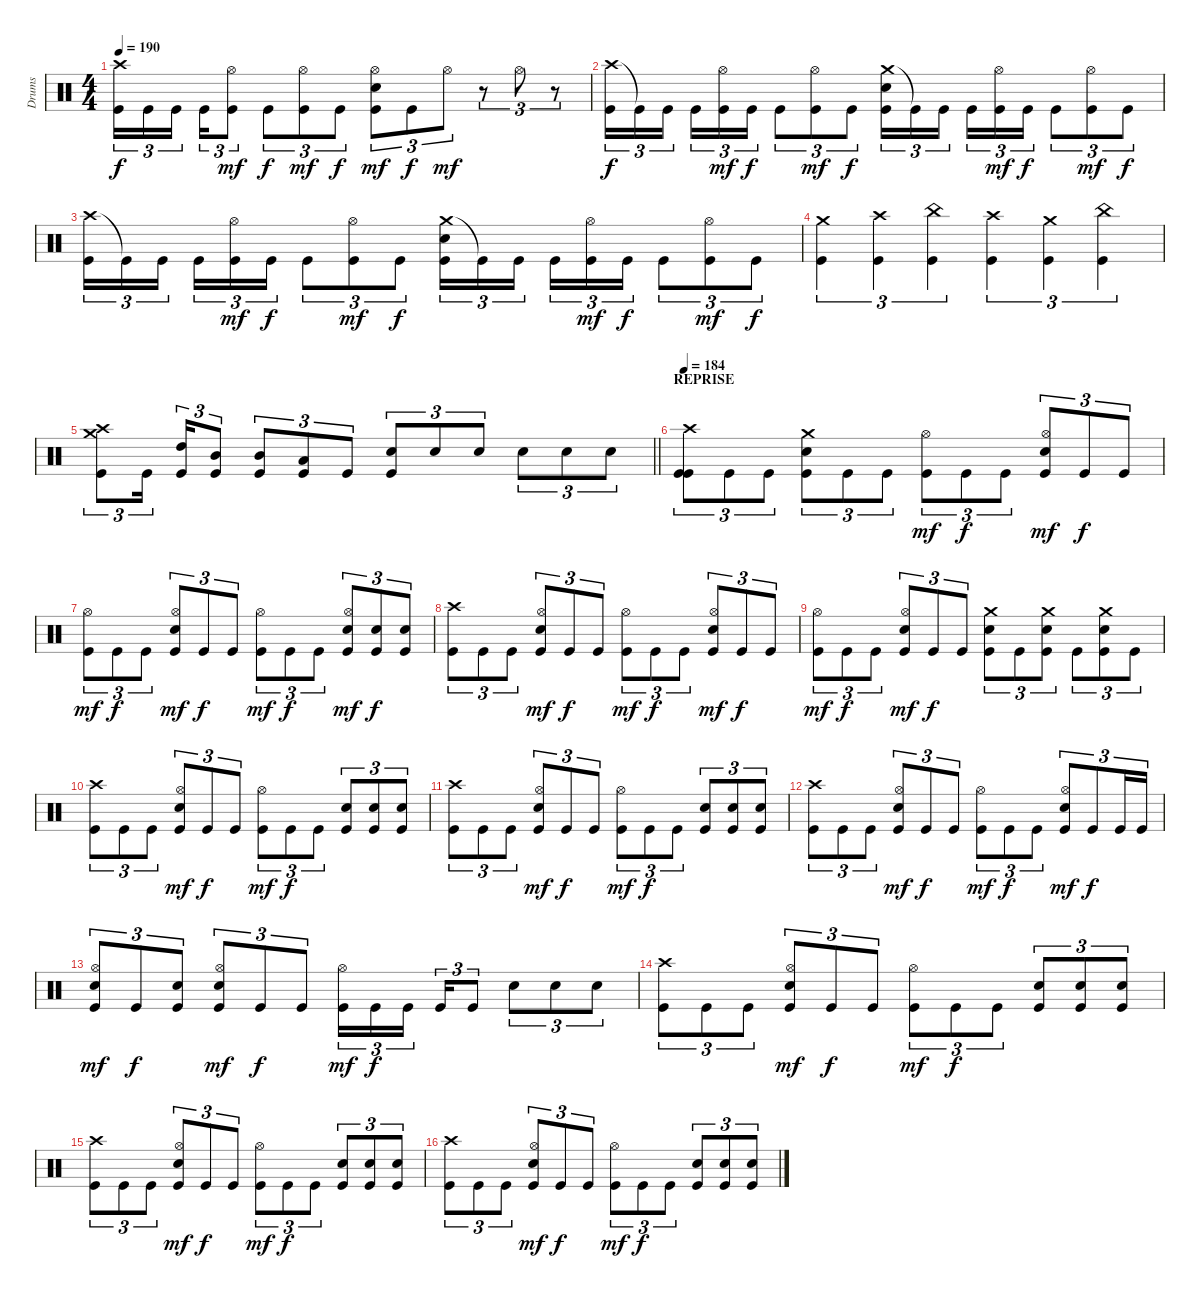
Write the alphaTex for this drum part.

\track ("Drums" "Drums") {instrument percussion}
\staff {score}
\articulation defaults
\ts (4 4)
\tempo 190
\clef neutral
\ks c
("Crash high (hit)" "Kick (hit)").16{tu (3 2) dy f} "Kick (hit)".16{tu (3 2)} "Kick (hit)".16{tu (3 2) beam splitsecondary} "Kick (hit)".16{tu (3 2)} ("Hi-Hat (open)" "Kick (hit)").8{tu (3 2) dy mf} "Kick (hit)".8{tu (3 2) dy f} ("Hi-Hat (open)" "Kick (hit)").8{tu (3 2) dy mf} "Kick (hit)".8{tu (3 2) dy f} ("Hi-Hat (open)" "Electric Snare (hit)" "Kick (hit)").8{tu (3 2) dy mf} "Kick (hit)".8{tu (3 2) dy f} "Hi-Hat (open)".8{tu (3 2) dy mf} r.8{tu (3 2)} "Hi-Hat (open)".8{tu (3 2)} r.8{tu (3 2)} |
("Crash high (hit)" "Kick (hit)").16{tu (3 2) dy f} "Kick (hit)"{t}.16{tu (3 2)} "Kick (hit)".16{tu (3 2) beam splitsecondary} "Kick (hit)".16{tu (3 2)} ("Hi-Hat (open)" "Kick (hit)").16{tu (3 2) dy mf} "Kick (hit)".16{tu (3 2) dy f} "Kick (hit)".8{tu (3 2)} ("Hi-Hat (open)" "Kick (hit)").8{tu (3 2) dy mf} "Kick (hit)".8{tu (3 2) dy f} ("Crash medium (hit)" "Electric Snare (hit)" "Kick (hit)").16{tu (3 2)} "Kick (hit)"{t}.16{tu (3 2)} "Kick (hit)".16{tu (3 2) beam splitsecondary} "Kick (hit)".16{tu (3 2)} ("Hi-Hat (open)" "Kick (hit)").16{tu (3 2) dy mf} "Kick (hit)".16{tu (3 2) dy f} "Kick (hit)".8{tu (3 2)} ("Hi-Hat (open)" "Kick (hit)").8{tu (3 2) dy mf} "Kick (hit)".8{tu (3 2) dy f} |
("Crash high (hit)" "Kick (hit)").16{tu (3 2)} "Kick (hit)"{t}.16{tu (3 2)} "Kick (hit)".16{tu (3 2) beam splitsecondary} "Kick (hit)".16{tu (3 2)} ("Hi-Hat (open)" "Kick (hit)").16{tu (3 2) dy mf} "Kick (hit)".16{tu (3 2) dy f} "Kick (hit)".8{tu (3 2)} ("Hi-Hat (open)" "Kick (hit)").8{tu (3 2) dy mf} "Kick (hit)".8{tu (3 2) dy f} ("Crash medium (hit)" "Electric Snare (hit)" "Kick (hit)").16{tu (3 2)} "Kick (hit)"{t}.16{tu (3 2)} "Kick (hit)".16{tu (3 2) beam splitsecondary} "Kick (hit)".16{tu (3 2)} ("Hi-Hat (open)" "Kick (hit)").16{tu (3 2) dy mf} "Kick (hit)".16{tu (3 2) dy f} "Kick (hit)".8{tu (3 2)} ("Hi-Hat (open)" "Kick (hit)").8{tu (3 2) dy mf} "Kick (hit)".8{tu (3 2) dy f} |
("Crash medium (hit)" "Kick (hit)").4{tu (3 2)} ("Crash high (hit)" "Kick (hit)").4{tu (3 2)} ("China (hit)" "Kick (hit)").4{tu (3 2)} ("Crash high (hit)" "Kick (hit)").4{tu (3 2)} ("Crash medium (hit)" "Kick (hit)").4{tu (3 2)} ("China (hit)" "Kick (hit)").4{tu (3 2)} |
\barLineRight lightlight
("Crash medium (hit)" "Crash high (hit)" "Kick (hit)").8{tu (3 2)} "Kick (hit)".16{tu (3 2) beam splitsecondary} ("High Tom (hit)" "Kick (hit)").16{tu (3 2)} ("Mid Tom (hit)" "Kick (hit)").8{tu (3 2)} ("Mid Tom (hit)" "Kick (hit)").8{tu (3 2)} ("Low Tom (hit)" "Kick (hit)").8{tu (3 2)} "Kick (hit)".8{tu (3 2)} ("Electric Snare (hit)" "Kick (hit)").8{tu (3 2)} "Electric Snare (hit)".8{tu (3 2)} "Electric Snare (hit)".8{tu (3 2)} "Electric Snare (hit)".8{tu (3 2)} "Electric Snare (hit)".8{tu (3 2)} "Electric Snare (hit)".8{tu (3 2)} |
\section ("" "REPRISE")
\tempo 184
("Crash high (hit)" "Kick (hit)" "Kick (hit)").8{tu (3 2)} "Kick (hit)".8{tu (3 2)} "Kick (hit)".8{tu (3 2)} ("Crash medium (hit)" "Electric Snare (hit)" "Kick (hit)").8{tu (3 2)} "Kick (hit)".8{tu (3 2)} "Kick (hit)".8{tu (3 2)} ("Hi-Hat (open)" "Kick (hit)").8{tu (3 2) dy mf} "Kick (hit)".8{tu (3 2) dy f} "Kick (hit)".8{tu (3 2)} ("Hi-Hat (open)" "Electric Snare (hit)" "Kick (hit)").8{tu (3 2) dy mf} "Kick (hit)".8{tu (3 2) dy f} "Kick (hit)".8{tu (3 2)} |
("Hi-Hat (open)" "Kick (hit)").8{tu (3 2) dy mf} "Kick (hit)".8{tu (3 2) dy f} "Kick (hit)".8{tu (3 2)} ("Hi-Hat (open)" "Electric Snare (hit)" "Kick (hit)").8{tu (3 2) dy mf} "Kick (hit)".8{tu (3 2) dy f} "Kick (hit)".8{tu (3 2)} ("Hi-Hat (open)" "Kick (hit)").8{tu (3 2) dy mf} "Kick (hit)".8{tu (3 2) dy f} "Kick (hit)".8{tu (3 2)} ("Hi-Hat (open)" "Electric Snare (hit)" "Kick (hit)").8{tu (3 2) dy mf} ("Electric Snare (hit)" "Kick (hit)").8{tu (3 2) dy f} ("Electric Snare (hit)" "Kick (hit)").8{tu (3 2)} |
("Crash high (hit)" "Kick (hit)").8{tu (3 2)} "Kick (hit)".8{tu (3 2)} "Kick (hit)".8{tu (3 2)} ("Hi-Hat (open)" "Electric Snare (hit)" "Kick (hit)").8{tu (3 2) dy mf} "Kick (hit)".8{tu (3 2) dy f} "Kick (hit)".8{tu (3 2)} ("Hi-Hat (open)" "Kick (hit)").8{tu (3 2) dy mf} "Kick (hit)".8{tu (3 2) dy f} "Kick (hit)".8{tu (3 2)} ("Hi-Hat (open)" "Electric Snare (hit)" "Kick (hit)").8{tu (3 2) dy mf} "Kick (hit)".8{tu (3 2) dy f} "Kick (hit)".8{tu (3 2)} |
("Hi-Hat (open)" "Kick (hit)").8{tu (3 2) dy mf} "Kick (hit)".8{tu (3 2) dy f} "Kick (hit)".8{tu (3 2)} ("Hi-Hat (open)" "Electric Snare (hit)" "Kick (hit)").8{tu (3 2) dy mf} "Kick (hit)".8{tu (3 2) dy f} "Kick (hit)".8{tu (3 2)} ("Crash medium (hit)" "Electric Snare (hit)" "Kick (hit)").8{tu (3 2)} "Kick (hit)".8{tu (3 2)} ("Crash medium (hit)" "Electric Snare (hit)" "Kick (hit)").8{tu (3 2)} "Kick (hit)".8{tu (3 2)} ("Crash medium (hit)" "Electric Snare (hit)" "Kick (hit)").8{tu (3 2)} "Kick (hit)".8{tu (3 2)} |
("Crash high (hit)" "Kick (hit)").8{tu (3 2)} "Kick (hit)".8{tu (3 2)} "Kick (hit)".8{tu (3 2)} ("Hi-Hat (open)" "Electric Snare (hit)" "Kick (hit)").8{tu (3 2) dy mf} "Kick (hit)".8{tu (3 2) dy f} "Kick (hit)".8{tu (3 2)} ("Hi-Hat (open)" "Kick (hit)").8{tu (3 2) dy mf} "Kick (hit)".8{tu (3 2) dy f} "Kick (hit)".8{tu (3 2)} ("Electric Snare (hit)" "Kick (hit)").8{tu (3 2)} ("Electric Snare (hit)" "Kick (hit)").8{tu (3 2)} ("Electric Snare (hit)" "Kick (hit)").8{tu (3 2)} |
("Crash high (hit)" "Kick (hit)").8{tu (3 2)} "Kick (hit)".8{tu (3 2)} "Kick (hit)".8{tu (3 2)} ("Hi-Hat (open)" "Electric Snare (hit)" "Kick (hit)").8{tu (3 2) dy mf} "Kick (hit)".8{tu (3 2) dy f} "Kick (hit)".8{tu (3 2)} ("Hi-Hat (open)" "Kick (hit)").8{tu (3 2) dy mf} "Kick (hit)".8{tu (3 2) dy f} "Kick (hit)".8{tu (3 2)} ("Electric Snare (hit)" "Kick (hit)").8{tu (3 2)} ("Electric Snare (hit)" "Kick (hit)").8{tu (3 2)} ("Electric Snare (hit)" "Kick (hit)").8{tu (3 2)} |
("Crash high (hit)" "Kick (hit)").8{tu (3 2)} "Kick (hit)".8{tu (3 2)} "Kick (hit)".8{tu (3 2)} ("Hi-Hat (open)" "Electric Snare (hit)" "Kick (hit)").8{tu (3 2) dy mf} "Kick (hit)".8{tu (3 2) dy f} "Kick (hit)".8{tu (3 2)} ("Hi-Hat (open)" "Kick (hit)").8{tu (3 2) dy mf} "Kick (hit)".8{tu (3 2) dy f} "Kick (hit)".8{tu (3 2)} ("Hi-Hat (open)" "Electric Snare (hit)" "Kick (hit)").8{tu (3 2) dy mf} "Kick (hit)".8{tu (3 2) dy f} "Kick (hit)".16{tu (3 2)} "Kick (hit)".16{tu (3 2)} |
("Hi-Hat (open)" "Electric Snare (hit)" "Kick (hit)").8{tu (3 2) dy mf} "Kick (hit)".8{tu (3 2) dy f} ("Electric Snare (hit)" "Kick (hit)").8{tu (3 2)} ("Hi-Hat (open)" "Electric Snare (hit)" "Kick (hit)").8{tu (3 2) dy mf} "Kick (hit)".8{tu (3 2) dy f} "Kick (hit)".8{tu (3 2)} ("Hi-Hat (open)" "Kick (hit)").16{tu (3 2) dy mf} "Kick (hit)".16{tu (3 2) dy f} "Kick (hit)".16{tu (3 2) beam splitsecondary} "Kick (hit)".16{tu (3 2)} "Kick (hit)".8{tu (3 2)} "Electric Snare (hit)".8{tu (3 2)} "Electric Snare (hit)".8{tu (3 2)} "Electric Snare (hit)".8{tu (3 2)} |
("Crash high (hit)" "Kick (hit)").8{tu (3 2)} "Kick (hit)".8{tu (3 2)} "Kick (hit)".8{tu (3 2)} ("Hi-Hat (open)" "Electric Snare (hit)" "Kick (hit)").8{tu (3 2) dy mf} "Kick (hit)".8{tu (3 2) dy f} "Kick (hit)".8{tu (3 2)} ("Hi-Hat (open)" "Kick (hit)").8{tu (3 2) dy mf} "Kick (hit)".8{tu (3 2) dy f} "Kick (hit)".8{tu (3 2)} ("Electric Snare (hit)" "Kick (hit)").8{tu (3 2)} ("Electric Snare (hit)" "Kick (hit)").8{tu (3 2)} ("Electric Snare (hit)" "Kick (hit)").8{tu (3 2)} |
("Crash high (hit)" "Kick (hit)").8{tu (3 2)} "Kick (hit)".8{tu (3 2)} "Kick (hit)".8{tu (3 2)} ("Hi-Hat (open)" "Electric Snare (hit)" "Kick (hit)").8{tu (3 2) dy mf} "Kick (hit)".8{tu (3 2) dy f} "Kick (hit)".8{tu (3 2)} ("Hi-Hat (open)" "Kick (hit)").8{tu (3 2) dy mf} "Kick (hit)".8{tu (3 2) dy f} "Kick (hit)".8{tu (3 2)} ("Electric Snare (hit)" "Kick (hit)").8{tu (3 2)} ("Electric Snare (hit)" "Kick (hit)").8{tu (3 2)} ("Electric Snare (hit)" "Kick (hit)").8{tu (3 2)} |
("Crash high (hit)" "Kick (hit)").8{tu (3 2)} "Kick (hit)".8{tu (3 2)} "Kick (hit)".8{tu (3 2)} ("Hi-Hat (open)" "Electric Snare (hit)" "Kick (hit)").8{tu (3 2) dy mf} "Kick (hit)".8{tu (3 2) dy f} "Kick (hit)".8{tu (3 2)} ("Hi-Hat (open)" "Kick (hit)").8{tu (3 2) dy mf} "Kick (hit)".8{tu (3 2) dy f} "Kick (hit)".8{tu (3 2)} ("Electric Snare (hit)" "Kick (hit)").8{tu (3 2)} ("Electric Snare (hit)" "Kick (hit)").8{tu (3 2)} ("Electric Snare (hit)" "Kick (hit)").8{tu (3 2)}
